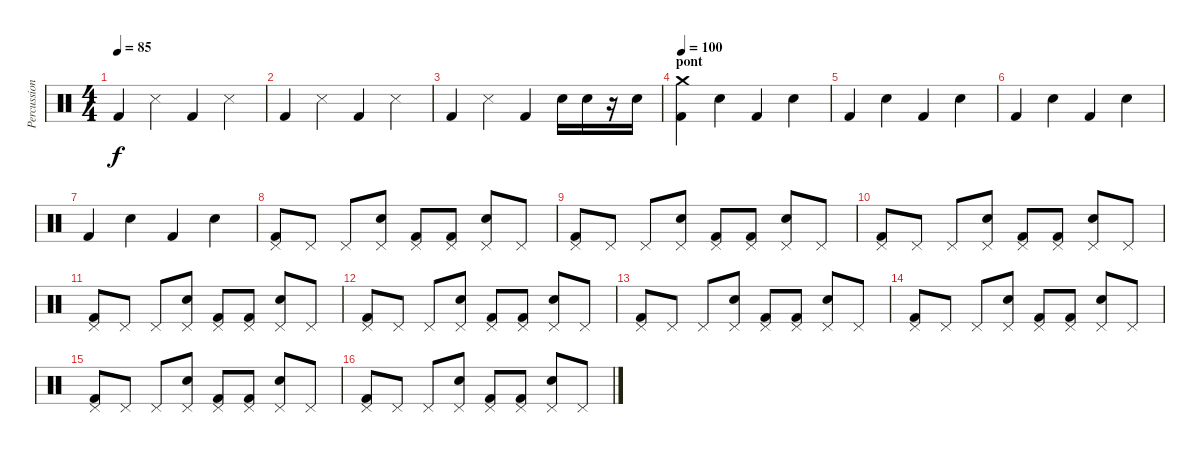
\track ("Percussions" "Percussion") {instrument percussion}
\staff {score}
\articulation defaults
\ts (4 4)
\tempo 85
\clef neutral
\ks c "Kick (hit) 2".4{dy f} "Snare (side stick) 3".4 "Kick (hit) 2".4 "Snare (side stick) 3".4
|
"Kick (hit) 2".4 "Snare (side stick) 3".4 "Kick (hit) 2".4 "Snare (side stick) 3".4 |
"Kick (hit) 2".4 "Snare (side stick) 3".4 "Kick (hit) 2".4 "Electric Snare (hit)".16 "Electric Snare (hit)".16 r.16 "Electric Snare (hit)".16 |
\section ("" "pont")
\tempo 100
("Crash medium (hit)" "Kick (hit) 2").4 "Electric Snare (hit)".4 "Kick (hit) 2".4 "Electric Snare (hit)".4 |
"Kick (hit) 2".4 "Electric Snare (hit)".4 "Kick (hit) 2".4 "Electric Snare (hit)".4 |
"Kick (hit) 2".4 "Electric Snare (hit)".4 "Kick (hit) 2".4 "Electric Snare (hit)".4 |
"Kick (hit) 2".4 "Electric Snare (hit)".4 "Kick (hit) 2".4 "Electric Snare (hit)".4 |
("Pedal Hi-Hat (hit)" "Kick (hit) 2").8 "Pedal Hi-Hat (hit)".8 "Pedal Hi-Hat (hit)".8 ("Pedal Hi-Hat (hit)" "Electric Snare (hit)").8 ("Pedal Hi-Hat (hit)" "Kick (hit) 2").8 ("Pedal Hi-Hat (hit)" "Kick (hit) 2").8 ("Pedal Hi-Hat (hit)" "Electric Snare (hit)").8 "Pedal Hi-Hat (hit)".8 |
("Pedal Hi-Hat (hit)" "Kick (hit) 2").8 "Pedal Hi-Hat (hit)".8 "Pedal Hi-Hat (hit)".8 ("Pedal Hi-Hat (hit)" "Electric Snare (hit)").8 ("Pedal Hi-Hat (hit)" "Kick (hit) 2").8 ("Pedal Hi-Hat (hit)" "Kick (hit) 2").8 ("Pedal Hi-Hat (hit)" "Electric Snare (hit)").8 "Pedal Hi-Hat (hit)".8 |
("Pedal Hi-Hat (hit)" "Kick (hit) 2").8 "Pedal Hi-Hat (hit)".8 "Pedal Hi-Hat (hit)".8 ("Pedal Hi-Hat (hit)" "Electric Snare (hit)").8 ("Pedal Hi-Hat (hit)" "Kick (hit) 2").8 ("Pedal Hi-Hat (hit)" "Kick (hit) 2").8 ("Pedal Hi-Hat (hit)" "Electric Snare (hit)").8 "Pedal Hi-Hat (hit)".8 |
("Pedal Hi-Hat (hit)" "Kick (hit) 2").8 "Pedal Hi-Hat (hit)".8 "Pedal Hi-Hat (hit)".8 ("Pedal Hi-Hat (hit)" "Electric Snare (hit)").8 ("Pedal Hi-Hat (hit)" "Kick (hit) 2").8 ("Pedal Hi-Hat (hit)" "Kick (hit) 2").8 ("Pedal Hi-Hat (hit)" "Electric Snare (hit)").8 "Pedal Hi-Hat (hit)".8 |
("Pedal Hi-Hat (hit)" "Kick (hit) 2").8 "Pedal Hi-Hat (hit)".8 "Pedal Hi-Hat (hit)".8 ("Pedal Hi-Hat (hit)" "Electric Snare (hit)").8 ("Pedal Hi-Hat (hit)" "Kick (hit) 2").8 ("Pedal Hi-Hat (hit)" "Kick (hit) 2").8 ("Pedal Hi-Hat (hit)" "Electric Snare (hit)").8 "Pedal Hi-Hat (hit)".8 |
("Pedal Hi-Hat (hit)" "Kick (hit) 2").8 "Pedal Hi-Hat (hit)".8 "Pedal Hi-Hat (hit)".8 ("Pedal Hi-Hat (hit)" "Electric Snare (hit)").8 ("Pedal Hi-Hat (hit)" "Kick (hit) 2").8 ("Pedal Hi-Hat (hit)" "Kick (hit) 2").8 ("Pedal Hi-Hat (hit)" "Electric Snare (hit)").8 "Pedal Hi-Hat (hit)".8 |
("Pedal Hi-Hat (hit)" "Kick (hit) 2").8 "Pedal Hi-Hat (hit)".8 "Pedal Hi-Hat (hit)".8 ("Pedal Hi-Hat (hit)" "Electric Snare (hit)").8 ("Pedal Hi-Hat (hit)" "Kick (hit) 2").8 ("Pedal Hi-Hat (hit)" "Kick (hit) 2").8 ("Pedal Hi-Hat (hit)" "Electric Snare (hit)").8 "Pedal Hi-Hat (hit)".8 |
("Pedal Hi-Hat (hit)" "Kick (hit) 2").8 "Pedal Hi-Hat (hit)".8 "Pedal Hi-Hat (hit)".8 ("Pedal Hi-Hat (hit)" "Electric Snare (hit)").8 ("Pedal Hi-Hat (hit)" "Kick (hit) 2").8 ("Pedal Hi-Hat (hit)" "Kick (hit) 2").8 ("Pedal Hi-Hat (hit)" "Electric Snare (hit)").8 "Pedal Hi-Hat (hit)".8 |
("Pedal Hi-Hat (hit)" "Kick (hit) 2").8 "Pedal Hi-Hat (hit)".8 "Pedal Hi-Hat (hit)".8 ("Pedal Hi-Hat (hit)" "Electric Snare (hit)").8 ("Pedal Hi-Hat (hit)" "Kick (hit) 2").8 ("Pedal Hi-Hat (hit)" "Kick (hit) 2").8 ("Pedal Hi-Hat (hit)" "Electric Snare (hit)").8 "Pedal Hi-Hat (hit)".8
